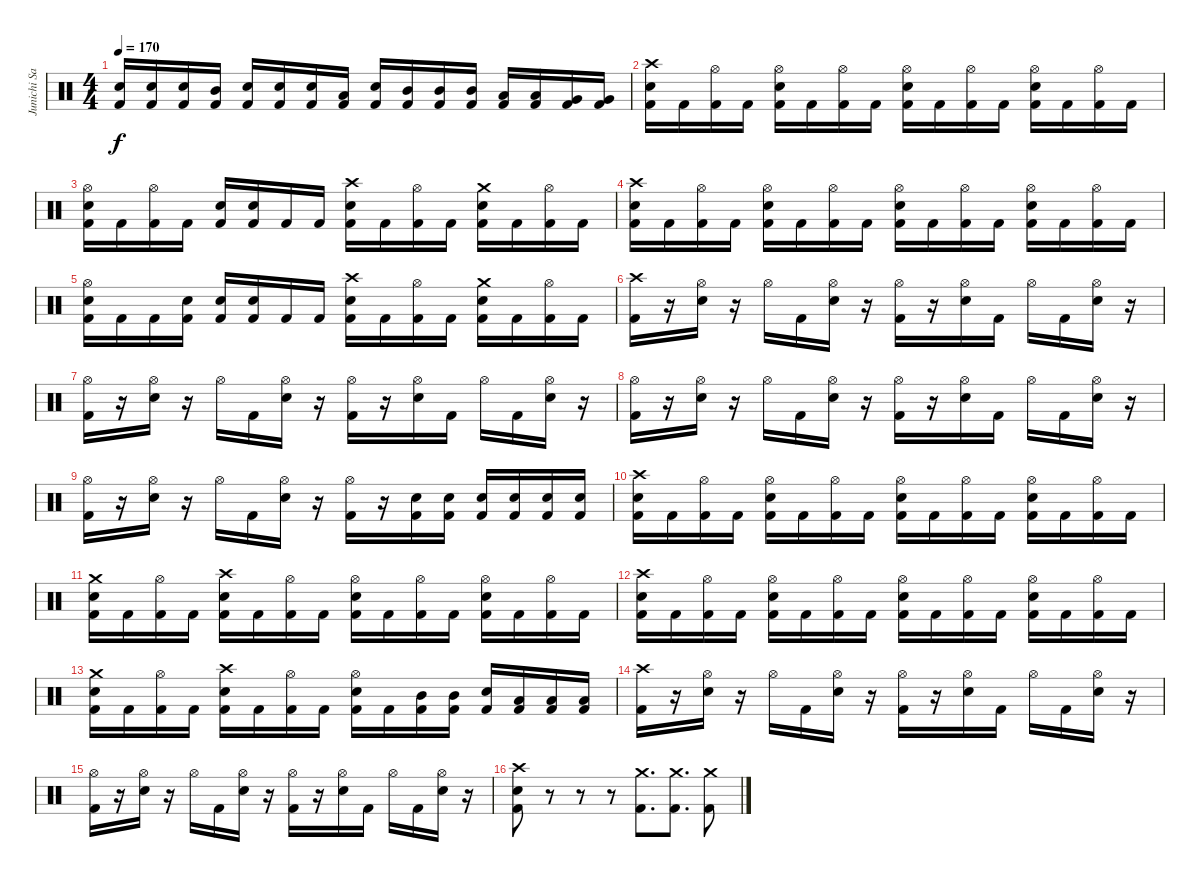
\track ("Junichi Sato" "Junichi Sa") {instrument percussion}
\staff {score}
\articulation defaults
\ts (4 4)
\tempo 170
\clef neutral
\ks c
("Electric Snare (hit)" "Kick (hit) 2").16{dy f} ("Electric Snare (hit)" "Kick (hit) 2").16 ("Electric Snare (hit)" "Kick (hit) 2").16 ("Mid Tom (hit)" "Kick (hit) 2").16 ("Electric Snare (hit)" "Kick (hit) 2").16 ("Electric Snare (hit)" "Kick (hit) 2").16 ("Electric Snare (hit)" "Kick (hit) 2").16 ("Low Tom (hit)" "Kick (hit) 2").16 ("Electric Snare (hit)" "Kick (hit) 2").16 ("Mid Tom (hit)" "Kick (hit) 2").16 ("Mid Tom (hit)" "Kick (hit) 2").16 ("Mid Tom (hit)" "Kick (hit) 2").16 ("Low Tom (hit)" "Kick (hit) 2").16 ("Low Tom (hit)" "Kick (hit) 2").16 ("Very Low Tom (hit)" "Kick (hit) 2").16 ("Very Low Tom (hit)" "Kick (hit) 2").16 |
("Crash high (hit)" "Electric Snare (hit)" "Kick (hit) 2").16 "Kick (hit) 2".16 ("Hi-Hat (open)" "Kick (hit) 2").16 "Kick (hit) 2".16 ("Hi-Hat (open)" "Electric Snare (hit)" "Kick (hit) 2").16 "Kick (hit) 2".16 ("Hi-Hat (open)" "Kick (hit) 2").16 "Kick (hit) 2".16 ("Hi-Hat (open)" "Electric Snare (hit)" "Kick (hit) 2").16 "Kick (hit) 2".16 ("Hi-Hat (open)" "Kick (hit) 2").16 "Kick (hit) 2".16 ("Hi-Hat (open)" "Electric Snare (hit)" "Kick (hit) 2").16 "Kick (hit) 2".16 ("Hi-Hat (open)" "Kick (hit) 2").16 "Kick (hit) 2".16 |
("Hi-Hat (open)" "Electric Snare (hit)" "Kick (hit) 2").16 "Kick (hit) 2".16 ("Hi-Hat (open)" "Kick (hit) 2").16 "Kick (hit) 2".16 ("Electric Snare (hit)" "Kick (hit) 2").16 ("Electric Snare (hit)" "Kick (hit) 2").16 "Kick (hit) 2".16 "Kick (hit) 2".16 ("Crash high (hit)" "Electric Snare (hit)" "Kick (hit) 2").16 "Kick (hit) 2".16 ("Hi-Hat (open)" "Kick (hit) 2").16 "Kick (hit) 2".16 ("Crash medium (hit)" "Electric Snare (hit)" "Kick (hit) 2").16 "Kick (hit) 2".16 ("Hi-Hat (open)" "Kick (hit) 2").16 "Kick (hit) 2".16 |
("Crash high (hit)" "Electric Snare (hit)" "Kick (hit) 2").16 "Kick (hit) 2".16 ("Hi-Hat (open)" "Kick (hit) 2").16 "Kick (hit) 2".16 ("Hi-Hat (open)" "Electric Snare (hit)" "Kick (hit) 2").16 "Kick (hit) 2".16 ("Hi-Hat (open)" "Kick (hit) 2").16 "Kick (hit) 2".16 ("Hi-Hat (open)" "Electric Snare (hit)" "Kick (hit) 2").16 "Kick (hit) 2".16 ("Hi-Hat (open)" "Kick (hit) 2").16 "Kick (hit) 2".16 ("Hi-Hat (open)" "Electric Snare (hit)" "Kick (hit) 2").16 "Kick (hit) 2".16 ("Hi-Hat (open)" "Kick (hit) 2").16 "Kick (hit) 2".16 |
("Hi-Hat (open)" "Electric Snare (hit)" "Kick (hit) 2").16 "Kick (hit) 2".16 "Kick (hit) 2".16 ("Electric Snare (hit)" "Kick (hit) 2").16 ("Electric Snare (hit)" "Kick (hit) 2").16 ("Electric Snare (hit)" "Kick (hit) 2").16 "Kick (hit) 2".16 "Kick (hit) 2".16 ("Crash high (hit)" "Electric Snare (hit)" "Kick (hit) 2").16 "Kick (hit) 2".16 ("Hi-Hat (open)" "Kick (hit) 2").16 "Kick (hit) 2".16 ("Crash medium (hit)" "Electric Snare (hit)" "Kick (hit) 2").16 "Kick (hit) 2".16 ("Hi-Hat (open)" "Kick (hit) 2").16 "Kick (hit) 2".16 |
("Crash high (hit)" "Kick (hit) 2").16 r.16 ("Hi-Hat (open)" "Electric Snare (hit)").16 r.16 "Hi-Hat (open)".16 "Kick (hit) 2".16 ("Hi-Hat (open)" "Electric Snare (hit)").16 r.16 ("Hi-Hat (open)" "Kick (hit) 2").16 r.16 ("Hi-Hat (open)" "Electric Snare (hit)").16 "Kick (hit) 2".16 "Hi-Hat (open)".16 "Kick (hit) 2".16 ("Hi-Hat (open)" "Electric Snare (hit)").16 r.16 |
("Hi-Hat (open)" "Kick (hit) 2").16 r.16 ("Hi-Hat (open)" "Electric Snare (hit)").16 r.16 "Hi-Hat (open)".16 "Kick (hit) 2".16 ("Hi-Hat (open)" "Electric Snare (hit)").16 r.16 ("Hi-Hat (open)" "Kick (hit) 2").16 r.16 ("Hi-Hat (open)" "Electric Snare (hit)").16 "Kick (hit) 2".16 "Hi-Hat (open)".16 "Kick (hit) 2".16 ("Hi-Hat (open)" "Electric Snare (hit)").16 r.16 |
("Hi-Hat (open)" "Kick (hit) 2").16 r.16 ("Hi-Hat (open)" "Electric Snare (hit)").16 r.16 "Hi-Hat (open)".16 "Kick (hit) 2".16 ("Hi-Hat (open)" "Electric Snare (hit)").16 r.16 ("Hi-Hat (open)" "Kick (hit) 2").16 r.16 ("Hi-Hat (open)" "Electric Snare (hit)").16 "Kick (hit) 2".16 "Hi-Hat (open)".16 "Kick (hit) 2".16 ("Hi-Hat (open)" "Electric Snare (hit)").16 r.16 |
("Hi-Hat (open)" "Kick (hit) 2").16 r.16 ("Hi-Hat (open)" "Electric Snare (hit)").16 r.16 "Hi-Hat (open)".16 "Kick (hit) 2".16 ("Hi-Hat (open)" "Electric Snare (hit)").16 r.16 ("Hi-Hat (open)" "Kick (hit) 2").16 r.16 ("Electric Snare (hit)" "Kick (hit) 2").16 ("Electric Snare (hit)" "Kick (hit) 2").16 ("Electric Snare (hit)" "Kick (hit) 2").16 ("Electric Snare (hit)" "Kick (hit) 2").16 ("Electric Snare (hit)" "Kick (hit) 2").16 ("Electric Snare (hit)" "Kick (hit) 2").16 |
("Crash high (hit)" "Electric Snare (hit)" "Kick (hit) 2").16 "Kick (hit) 2".16 ("Hi-Hat (open)" "Kick (hit) 2").16 "Kick (hit) 2".16 ("Hi-Hat (open)" "Electric Snare (hit)" "Kick (hit) 2").16 "Kick (hit) 2".16 ("Hi-Hat (open)" "Kick (hit) 2").16 "Kick (hit) 2".16 ("Hi-Hat (open)" "Electric Snare (hit)" "Kick (hit) 2").16 "Kick (hit) 2".16 ("Hi-Hat (open)" "Kick (hit) 2").16 "Kick (hit) 2".16 ("Hi-Hat (open)" "Electric Snare (hit)" "Kick (hit) 2").16 "Kick (hit) 2".16 ("Hi-Hat (open)" "Kick (hit) 2").16 "Kick (hit) 2".16 |
("Crash medium (hit)" "Electric Snare (hit)" "Kick (hit) 2").16 "Kick (hit) 2".16 ("Hi-Hat (open)" "Kick (hit) 2").16 "Kick (hit) 2".16 ("Crash high (hit)" "Electric Snare (hit)" "Kick (hit) 2").16 "Kick (hit) 2".16 ("Hi-Hat (open)" "Kick (hit) 2").16 "Kick (hit) 2".16 ("Hi-Hat (open)" "Electric Snare (hit)" "Kick (hit) 2").16 "Kick (hit) 2".16 ("Hi-Hat (open)" "Kick (hit) 2").16 "Kick (hit) 2".16 ("Hi-Hat (open)" "Electric Snare (hit)" "Kick (hit) 2").16 "Kick (hit) 2".16 ("Hi-Hat (open)" "Kick (hit) 2").16 "Kick (hit) 2".16 |
("Crash high (hit)" "Electric Snare (hit)" "Kick (hit) 2").16 "Kick (hit) 2".16 ("Hi-Hat (open)" "Kick (hit) 2").16 "Kick (hit) 2".16 ("Hi-Hat (open)" "Electric Snare (hit)" "Kick (hit) 2").16 "Kick (hit) 2".16 ("Hi-Hat (open)" "Kick (hit) 2").16 "Kick (hit) 2".16 ("Hi-Hat (open)" "Electric Snare (hit)" "Kick (hit) 2").16 "Kick (hit) 2".16 ("Hi-Hat (open)" "Kick (hit) 2").16 "Kick (hit) 2".16 ("Hi-Hat (open)" "Electric Snare (hit)" "Kick (hit) 2").16 "Kick (hit) 2".16 ("Hi-Hat (open)" "Kick (hit) 2").16 "Kick (hit) 2".16 |
("Crash medium (hit)" "Electric Snare (hit)" "Kick (hit) 2").16 "Kick (hit) 2".16 ("Hi-Hat (open)" "Kick (hit) 2").16 "Kick (hit) 2".16 ("Crash high (hit)" "Electric Snare (hit)" "Kick (hit) 2").16 "Kick (hit) 2".16 ("Hi-Hat (open)" "Kick (hit) 2").16 "Kick (hit) 2".16 ("Hi-Hat (open)" "Electric Snare (hit)" "Kick (hit) 2").16 "Kick (hit) 2".16 ("Mid Tom (hit)" "Kick (hit) 2").16 ("Mid Tom (hit)" "Kick (hit) 2").16 ("Electric Snare (hit)" "Kick (hit) 2").16 ("Low Tom (hit)" "Kick (hit) 2").16 ("Low Tom (hit)" "Kick (hit) 2").16 ("Low Tom (hit)" "Kick (hit) 2").16 |
("Crash high (hit)" "Kick (hit) 2").16 r.16 ("Hi-Hat (open)" "Electric Snare (hit)").16 r.16 "Hi-Hat (open)".16 "Kick (hit) 2".16 ("Hi-Hat (open)" "Electric Snare (hit)").16 r.16 ("Hi-Hat (open)" "Kick (hit) 2").16 r.16 ("Hi-Hat (open)" "Electric Snare (hit)").16 "Kick (hit) 2".16 "Hi-Hat (open)".16 "Kick (hit) 2".16 ("Hi-Hat (open)" "Electric Snare (hit)").16 r.16 |
("Hi-Hat (open)" "Kick (hit) 2").16 r.16 ("Hi-Hat (open)" "Electric Snare (hit)").16 r.16 "Hi-Hat (open)".16 "Kick (hit) 2".16 ("Hi-Hat (open)" "Electric Snare (hit)").16 r.16 ("Hi-Hat (open)" "Kick (hit) 2").16 r.16 ("Hi-Hat (open)" "Electric Snare (hit)").16 "Kick (hit) 2".16 "Hi-Hat (open)".16 "Kick (hit) 2".16 ("Hi-Hat (open)" "Electric Snare (hit)").16 r.16 |
("Crash high (hit)" "Electric Snare (hit)" "Kick (hit) 2").8 r.8 r.8 r.8 ("Crash medium (hit)" "Kick (hit) 2").8{d} ("Crash medium (hit)" "Kick (hit) 2").8{d} ("Crash medium (hit)" "Kick (hit) 2").8
